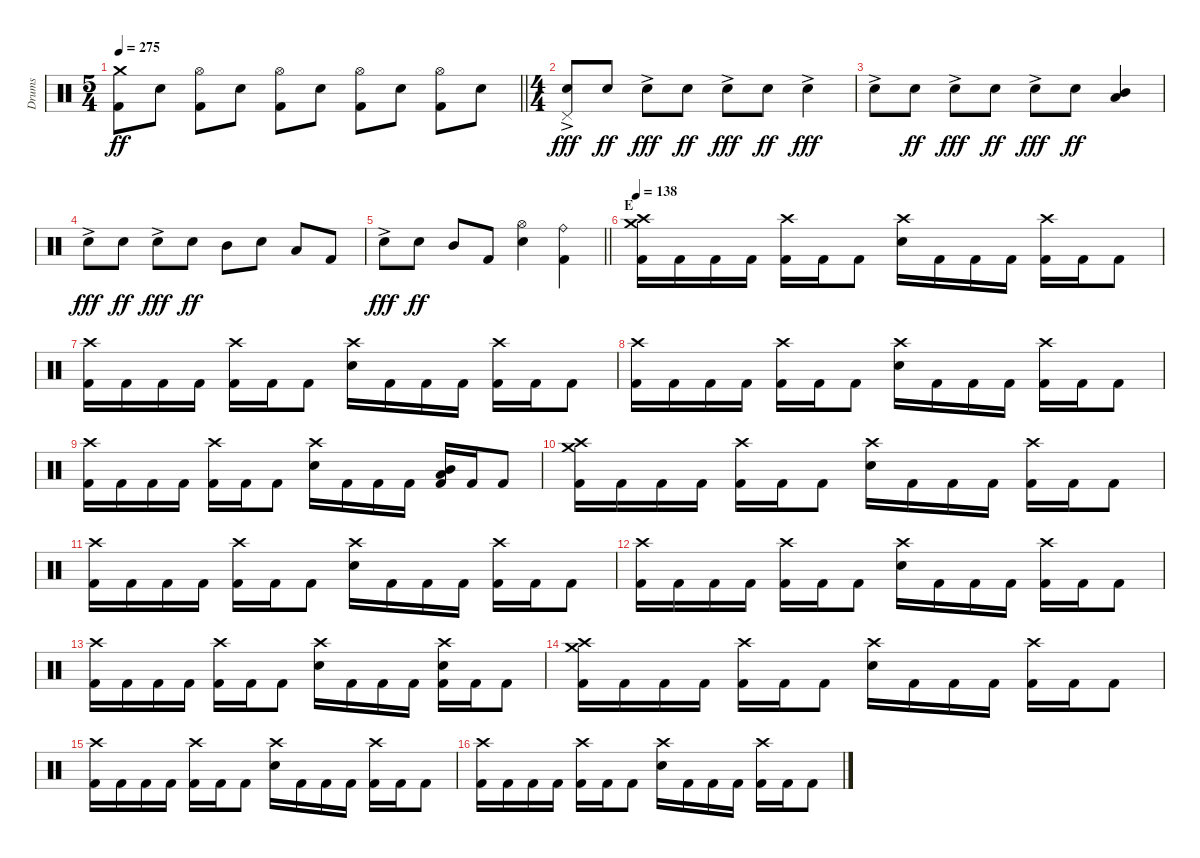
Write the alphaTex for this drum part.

\track ("Drums" "Drums") {instrument percussion}
\staff {score}
\articulation defaults
\ts (5 4)
\tempo 275
\clef neutral
\barLineRight lightlight
\ks c
("Crash medium (hit)" "Kick (hit) 2").8{dy ff} "Electric Snare (hit)".8 ("Hi-Hat (open)" "Kick (hit) 2").8 "Electric Snare (hit)".8 ("Hi-Hat (open)" "Kick (hit) 2").8 "Electric Snare (hit)".8 ("Hi-Hat (open)" "Kick (hit) 2").8 "Electric Snare (hit)".8 ("Hi-Hat (open)" "Kick (hit) 2").8 "Electric Snare (hit)".8 |
\ts (4 4)
\section ("" "")
("Pedal Hi-Hat (hit)" "Electric Snare (hit)"{ac}).8{dy fff volume 14} "Electric Snare (hit)".8{dy ff} "Electric Snare (hit)"{ac}.8{dy fff} "Electric Snare (hit)".8{dy ff} "Electric Snare (hit)"{ac}.8{dy fff} "Electric Snare (hit)".8{dy ff} "Electric Snare (hit)"{ac}.4{dy fff} |
"Electric Snare (hit)"{ac}.8 "Electric Snare (hit)".8{dy ff} "Electric Snare (hit)"{ac}.8{dy fff} "Electric Snare (hit)".8{dy ff} "Electric Snare (hit)"{ac}.8{dy fff} "Electric Snare (hit)".8{dy ff} ("Mid Tom (hit)" "Low Tom (hit)").4{bu 60} |
"Electric Snare (hit)"{ac}.8{dy fff} "Electric Snare (hit)".8{dy ff} "Electric Snare (hit)"{ac}.8{dy fff} "Electric Snare (hit)".8{dy ff} "Mid Tom (hit)".8 "Electric Snare (hit)".8 "Low Tom (hit)".8 "Kick (hit) 2".8 |
\barLineRight lightlight "Electric Snare (hit)"{ac}.8{dy fff} "Electric Snare (hit)".8{dy ff} "Mid Tom (hit)".8 "Kick (hit) 2".8
("Hi-Hat (open)" "Electric Snare (hit)").4 ("Ride (bell)" "Kick (hit) 2").4 |
\section ("" "E")
\tempo 138
("Crash medium (hit)" "Crash high (hit)" "Kick (hit) 2").16 "Kick (hit) 2".16 "Kick (hit) 2".16 "Kick (hit) 2".16 ("Crash high (hit)" "Kick (hit) 2").16 "Kick (hit) 2".16 "Kick (hit) 2".8 ("Crash high (hit)" "Electric Snare (hit)").16 "Kick (hit) 2".16 "Kick (hit) 2".16 "Kick (hit) 2".16 ("Crash high (hit)" "Kick (hit) 2").16 "Kick (hit) 2".16 "Kick (hit) 2".8 |
("Crash high (hit)" "Kick (hit) 2").16 "Kick (hit) 2".16 "Kick (hit) 2".16 "Kick (hit) 2".16 ("Crash high (hit)" "Kick (hit) 2").16 "Kick (hit) 2".16 "Kick (hit) 2".8 ("Crash high (hit)" "Electric Snare (hit)").16 "Kick (hit) 2".16 "Kick (hit) 2".16 "Kick (hit) 2".16 ("Crash high (hit)" "Kick (hit) 2").16 "Kick (hit) 2".16 "Kick (hit) 2".8 |
("Crash high (hit)" "Kick (hit) 2").16 "Kick (hit) 2".16 "Kick (hit) 2".16 "Kick (hit) 2".16 ("Crash high (hit)" "Kick (hit) 2").16 "Kick (hit) 2".16 "Kick (hit) 2".8 ("Crash high (hit)" "Electric Snare (hit)").16 "Kick (hit) 2".16 "Kick (hit) 2".16 "Kick (hit) 2".16 ("Crash high (hit)" "Kick (hit) 2").16 "Kick (hit) 2".16 "Kick (hit) 2".8 |
("Crash high (hit)" "Kick (hit) 2").16 "Kick (hit) 2".16 "Kick (hit) 2".16 "Kick (hit) 2".16 ("Crash high (hit)" "Kick (hit) 2").16 "Kick (hit) 2".16 "Kick (hit) 2".8 ("Crash high (hit)" "Electric Snare (hit)").16 "Kick (hit) 2".16 "Kick (hit) 2".16 "Kick (hit) 2".16 ("Mid Tom (hit)" "Low Tom (hit)" "Kick (hit) 2").16 "Kick (hit) 2".16 "Kick (hit) 2".8 |
("Crash medium (hit)" "Crash high (hit)" "Kick (hit) 2").16 "Kick (hit) 2".16 "Kick (hit) 2".16 "Kick (hit) 2".16 ("Crash high (hit)" "Kick (hit) 2").16 "Kick (hit) 2".16 "Kick (hit) 2".8 ("Crash high (hit)" "Electric Snare (hit)").16 "Kick (hit) 2".16 "Kick (hit) 2".16 "Kick (hit) 2".16 ("Crash high (hit)" "Kick (hit) 2").16 "Kick (hit) 2".16 "Kick (hit) 2".8 |
("Crash high (hit)" "Kick (hit) 2").16 "Kick (hit) 2".16 "Kick (hit) 2".16 "Kick (hit) 2".16 ("Crash high (hit)" "Kick (hit) 2").16 "Kick (hit) 2".16 "Kick (hit) 2".8 ("Crash high (hit)" "Electric Snare (hit)").16 "Kick (hit) 2".16 "Kick (hit) 2".16 "Kick (hit) 2".16 ("Crash high (hit)" "Kick (hit) 2").16 "Kick (hit) 2".16 "Kick (hit) 2".8 |
("Crash high (hit)" "Kick (hit) 2").16 "Kick (hit) 2".16 "Kick (hit) 2".16 "Kick (hit) 2".16 ("Crash high (hit)" "Kick (hit) 2").16 "Kick (hit) 2".16 "Kick (hit) 2".8 ("Crash high (hit)" "Electric Snare (hit)").16 "Kick (hit) 2".16 "Kick (hit) 2".16 "Kick (hit) 2".16 ("Crash high (hit)" "Kick (hit) 2").16 "Kick (hit) 2".16 "Kick (hit) 2".8 |
("Crash high (hit)" "Kick (hit) 2").16 "Kick (hit) 2".16 "Kick (hit) 2".16 "Kick (hit) 2".16 ("Crash high (hit)" "Kick (hit) 2").16 "Kick (hit) 2".16 "Kick (hit) 2".8 ("Crash high (hit)" "Electric Snare (hit)").16 "Kick (hit) 2".16 "Kick (hit) 2".16 "Kick (hit) 2".16 ("Crash high (hit)" "Electric Snare (hit)" "Kick (hit) 2").16 "Kick (hit) 2".16 "Kick (hit) 2".8 |
("Crash medium (hit)" "Crash high (hit)" "Kick (hit) 2").16 "Kick (hit) 2".16 "Kick (hit) 2".16 "Kick (hit) 2".16 ("Crash high (hit)" "Kick (hit) 2").16 "Kick (hit) 2".16 "Kick (hit) 2".8 ("Crash high (hit)" "Electric Snare (hit)").16 "Kick (hit) 2".16 "Kick (hit) 2".16 "Kick (hit) 2".16 ("Crash high (hit)" "Kick (hit) 2").16 "Kick (hit) 2".16 "Kick (hit) 2".8 |
("Crash high (hit)" "Kick (hit) 2").16 "Kick (hit) 2".16 "Kick (hit) 2".16 "Kick (hit) 2".16 ("Crash high (hit)" "Kick (hit) 2").16 "Kick (hit) 2".16 "Kick (hit) 2".8 ("Crash high (hit)" "Electric Snare (hit)").16 "Kick (hit) 2".16 "Kick (hit) 2".16 "Kick (hit) 2".16 ("Crash high (hit)" "Kick (hit) 2").16 "Kick (hit) 2".16 "Kick (hit) 2".8 |
("Crash high (hit)" "Kick (hit) 2").16 "Kick (hit) 2".16 "Kick (hit) 2".16 "Kick (hit) 2".16 ("Crash high (hit)" "Kick (hit) 2").16 "Kick (hit) 2".16 "Kick (hit) 2".8 ("Crash high (hit)" "Electric Snare (hit)").16 "Kick (hit) 2".16 "Kick (hit) 2".16 "Kick (hit) 2".16 ("Crash high (hit)" "Kick (hit) 2").16 "Kick (hit) 2".16 "Kick (hit) 2".8
